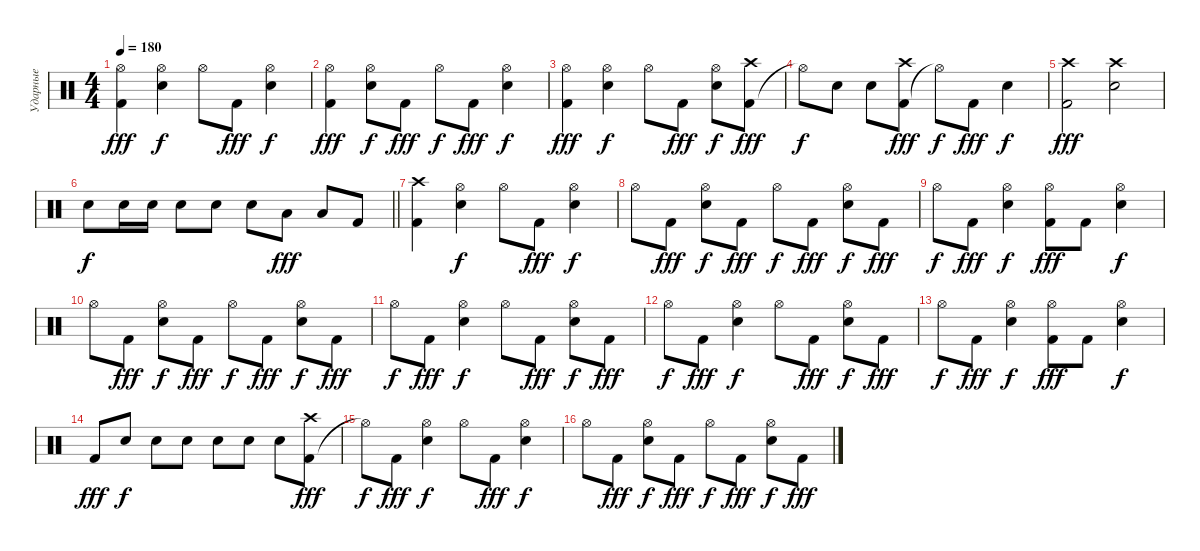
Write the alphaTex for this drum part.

\track ("Ударные" "Ударные") {instrument percussion}
\staff
\articulation defaults
\ts (4 4)
\tempo 180
\clef neutral
\ks c
("Kick (hit) 2" "Hi-Hat (open)").4{dy fff} ("Snare (hit) 2" "Hi-Hat (open)").4{dy f} "Hi-Hat (open)".8 "Kick (hit) 2".8{dy fff} ("Snare (hit) 2" "Hi-Hat (open)").4{dy f} |
("Kick (hit) 2" "Hi-Hat (open)").4{dy fff} ("Snare (hit) 2" "Hi-Hat (open)").8{dy f} "Kick (hit) 2".8{dy fff} "Hi-Hat (open)".8{dy f} "Kick (hit) 2".8{dy fff} ("Snare (hit) 2" "Hi-Hat (open)").4{dy f} |
("Kick (hit) 2" "Hi-Hat (open)").4{dy fff} ("Snare (hit) 2" "Hi-Hat (open)").4{dy f} "Hi-Hat (open)".8 "Kick (hit) 2".8{dy fff} ("Snare (hit) 2" "Hi-Hat (open)").8{dy f} ("Kick (hit) 2" "Crash high (hit)").8{dy fff} |
"Hi-Hat (open)"{t}.8{dy f} "Snare (hit) 2".8 "Snare (hit) 2".8 ("Kick (hit) 2" "Crash high (hit)").8{dy fff} "Hi-Hat (open)"{t}.8{dy f} "Kick (hit) 2".8{dy fff} "Snare (hit) 2".4{dy f} |
("Kick (hit) 2" "Crash high (hit)").2{dy fff} ("Snare (hit) 2" "Crash high (hit)").2 |
\barLineRight lightlight "Snare (hit) 2".8{dy f} "Snare (hit) 2".16 "Snare (hit) 2".16 "Snare (hit) 2".8 "Snare (hit) 2".8 "Snare (hit) 2".8 "Low Tom (hit)".8{dy fff} "Low Tom (hit)".8 "Kick (hit) 2".8
|
("Kick (hit) 2" "Crash high (hit)").4 ("Snare (hit) 2" "Hi-Hat (open)").4{dy f} "Hi-Hat (open)".8 "Kick (hit) 2".8{dy fff} ("Snare (hit) 2" "Hi-Hat (open)").4{dy f} |
"Hi-Hat (open)".8 "Kick (hit) 2".8{dy fff} ("Snare (hit) 2" "Hi-Hat (open)").8{dy f} "Kick (hit) 2".8{dy fff} "Hi-Hat (open)".8{dy f} "Kick (hit) 2".8{dy fff} ("Snare (hit) 2" "Hi-Hat (open)").8{dy f} "Kick (hit) 2".8{dy fff} |
"Hi-Hat (open)".8{dy f} "Kick (hit) 2".8{dy fff} ("Snare (hit) 2" "Hi-Hat (open)").4{dy f} ("Kick (hit) 2" "Hi-Hat (open)").8{dy fff} "Kick (hit) 2".8 ("Snare (hit) 2" "Hi-Hat (open)").4{dy f} |
"Hi-Hat (open)".8 "Kick (hit) 2".8{dy fff} ("Snare (hit) 2" "Hi-Hat (open)").8{dy f} "Kick (hit) 2".8{dy fff} "Hi-Hat (open)".8{dy f} "Kick (hit) 2".8{dy fff} ("Snare (hit) 2" "Hi-Hat (open)").8{dy f} "Kick (hit) 2".8{dy fff} |
"Hi-Hat (open)".8{dy f} "Kick (hit) 2".8{dy fff} ("Snare (hit) 2" "Hi-Hat (open)").4{dy f} "Hi-Hat (open)".8 "Kick (hit) 2".8{dy fff} ("Snare (hit) 2" "Hi-Hat (open)").8{dy f} "Kick (hit) 2".8{dy fff} |
"Hi-Hat (open)".8{dy f} "Kick (hit) 2".8{dy fff} ("Snare (hit) 2" "Hi-Hat (open)").4{dy f} "Hi-Hat (open)".8 "Kick (hit) 2".8{dy fff} ("Snare (hit) 2" "Hi-Hat (open)").8{dy f} "Kick (hit) 2".8{dy fff} |
"Hi-Hat (open)".8{dy f} "Kick (hit) 2".8{dy fff} ("Snare (hit) 2" "Hi-Hat (open)").4{dy f} ("Kick (hit) 2" "Hi-Hat (open)").8{dy fff} "Kick (hit) 2".8 ("Snare (hit) 2" "Hi-Hat (open)").4{dy f} |
"Kick (hit) 2".8{dy fff} "Snare (hit) 2".8{dy f} "Snare (hit) 2".8 "Snare (hit) 2".8 "Snare (hit) 2".8 "Snare (hit) 2".8 "Snare (hit) 2".8 ("Kick (hit) 2" "Crash high (hit)").8{dy fff} |
"Hi-Hat (open)"{t}.8{dy f} "Kick (hit) 2".8{dy fff} ("Snare (hit) 2" "Hi-Hat (open)").4{dy f} "Hi-Hat (open)".8 "Kick (hit) 2".8{dy fff} ("Snare (hit) 2" "Hi-Hat (open)").4{dy f} |
"Hi-Hat (open)".8 "Kick (hit) 2".8{dy fff} ("Snare (hit) 2" "Hi-Hat (open)").8{dy f} "Kick (hit) 2".8{dy fff} "Hi-Hat (open)".8{dy f} "Kick (hit) 2".8{dy fff} ("Snare (hit) 2" "Hi-Hat (open)").8{dy f} "Kick (hit) 2".8{dy fff}
